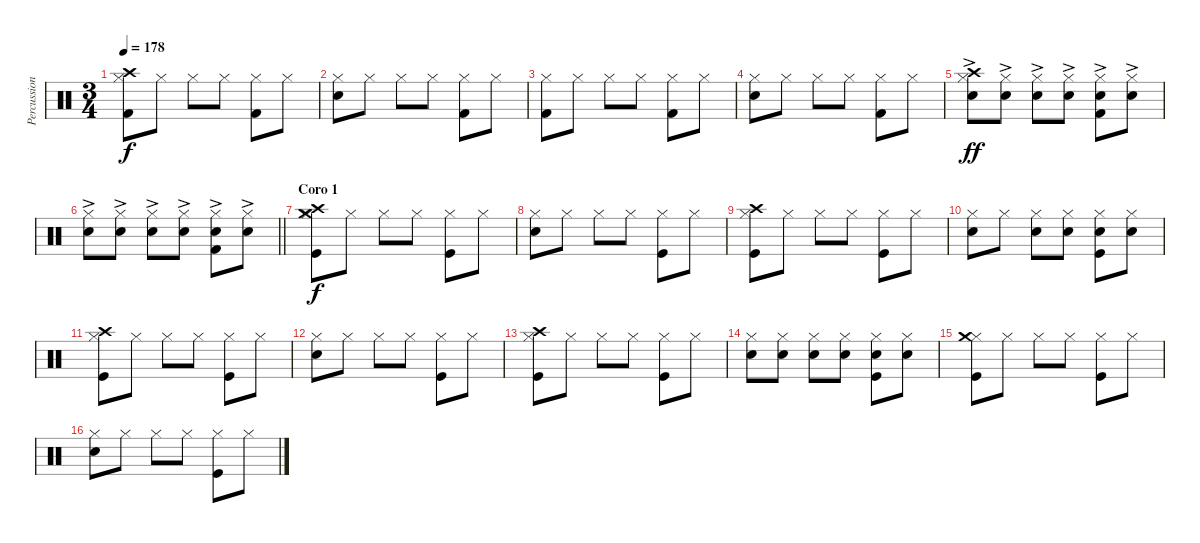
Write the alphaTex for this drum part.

\track ("Percussion" "Percussion") {instrument percussion}
\staff {score}
\articulation defaults
\ts (3 4)
\tempo 178
\clef neutral
\ks c
("Hi-Hat (closed)" "Crash high (hit)" "Kick (hit) 2").8{dy f} "Hi-Hat (closed)".8 "Hi-Hat (closed)".8 "Hi-Hat (closed)".8 ("Hi-Hat (closed)" "Kick (hit) 2").8 "Hi-Hat (closed)".8 |
("Hi-Hat (closed)" "Snare (hit) 2").8 "Hi-Hat (closed)".8 "Hi-Hat (closed)".8 "Hi-Hat (closed)".8 ("Hi-Hat (closed)" "Kick (hit) 2").8 "Hi-Hat (closed)".8 |
("Hi-Hat (closed)" "Kick (hit) 2").8 "Hi-Hat (closed)".8 "Hi-Hat (closed)".8 "Hi-Hat (closed)".8 ("Hi-Hat (closed)" "Kick (hit) 2").8 "Hi-Hat (closed)".8 |
("Hi-Hat (closed)" "Snare (hit) 2").8 "Hi-Hat (closed)".8 "Hi-Hat (closed)".8 "Hi-Hat (closed)".8 ("Hi-Hat (closed)" "Kick (hit) 2").8 "Hi-Hat (closed)".8 |
("Hi-Hat (closed)" "Snare (hit) 2"{ac} "Crash high (hit)").8{dy ff} ("Hi-Hat (closed)" "Snare (hit) 2"{ac}).8 ("Hi-Hat (closed)" "Snare (hit) 2"{ac}).8 ("Hi-Hat (closed)" "Snare (hit) 2"{ac}).8 ("Hi-Hat (closed)" "Snare (hit) 2"{ac} "Kick (hit) 2").8 ("Hi-Hat (closed)" "Snare (hit) 2"{ac}).8 |
\barLineRight lightlight
("Hi-Hat (closed)" "Snare (hit) 2"{ac}).8 ("Hi-Hat (closed)" "Snare (hit) 2"{ac}).8 ("Hi-Hat (closed)" "Snare (hit) 2"{ac}).8 ("Hi-Hat (closed)" "Snare (hit) 2"{ac}).8 ("Hi-Hat (closed)" "Snare (hit) 2"{ac} "Kick (hit) 2").8 ("Hi-Hat (closed)" "Snare (hit) 2"{ac}).8 |
\section ("" "Coro 1")
("Hi-Hat (closed)" "Crash medium (hit)" "Crash high (hit)" "Kick (hit)").8{dy f} "Hi-Hat (closed)".8 "Hi-Hat (closed)".8 "Hi-Hat (closed)".8 ("Hi-Hat (closed)" "Kick (hit)").8 "Hi-Hat (closed)".8 |
("Hi-Hat (closed)" "Snare (hit) 2").8 "Hi-Hat (closed)".8 "Hi-Hat (closed)".8 "Hi-Hat (closed)".8 ("Hi-Hat (closed)" "Kick (hit)").8 "Hi-Hat (closed)".8 |
("Hi-Hat (closed)" "Crash high (hit)" "Kick (hit)").8 "Hi-Hat (closed)".8 "Hi-Hat (closed)".8 "Hi-Hat (closed)".8 ("Hi-Hat (closed)" "Kick (hit)").8 "Hi-Hat (closed)".8 |
("Hi-Hat (closed)" "Snare (hit) 2").8 "Hi-Hat (closed)".8 ("Hi-Hat (closed)" "Snare (hit) 2").8 ("Hi-Hat (closed)" "Snare (hit) 2").8 ("Hi-Hat (closed)" "Snare (hit) 2" "Kick (hit)").8 ("Hi-Hat (closed)" "Snare (hit) 2").8 |
("Hi-Hat (closed)" "Crash high (hit)" "Kick (hit)").8 "Hi-Hat (closed)".8 "Hi-Hat (closed)".8 "Hi-Hat (closed)".8 ("Hi-Hat (closed)" "Kick (hit)").8 "Hi-Hat (closed)".8 |
("Hi-Hat (closed)" "Snare (hit) 2").8 "Hi-Hat (closed)".8 "Hi-Hat (closed)".8 "Hi-Hat (closed)".8 ("Hi-Hat (closed)" "Kick (hit)").8 "Hi-Hat (closed)".8 |
("Hi-Hat (closed)" "Crash high (hit)" "Kick (hit)").8 "Hi-Hat (closed)".8 "Hi-Hat (closed)".8 "Hi-Hat (closed)".8 ("Hi-Hat (closed)" "Kick (hit)").8 "Hi-Hat (closed)".8 |
("Hi-Hat (closed)" "Snare (hit) 2").8 ("Hi-Hat (closed)" "Snare (hit) 2").8 ("Hi-Hat (closed)" "Snare (hit) 2").8 ("Hi-Hat (closed)" "Snare (hit) 2").8 ("Hi-Hat (closed)" "Snare (hit) 2" "Kick (hit)").8 ("Hi-Hat (closed)" "Snare (hit) 2").8 |
("Hi-Hat (closed)" "Crash medium (hit)" "Kick (hit)").8 "Hi-Hat (closed)".8 "Hi-Hat (closed)".8 "Hi-Hat (closed)".8 ("Hi-Hat (closed)" "Kick (hit)").8 "Hi-Hat (closed)".8 |
("Hi-Hat (closed)" "Snare (hit) 2").8 "Hi-Hat (closed)".8 "Hi-Hat (closed)".8 "Hi-Hat (closed)".8 ("Hi-Hat (closed)" "Kick (hit)").8 "Hi-Hat (closed)".8
